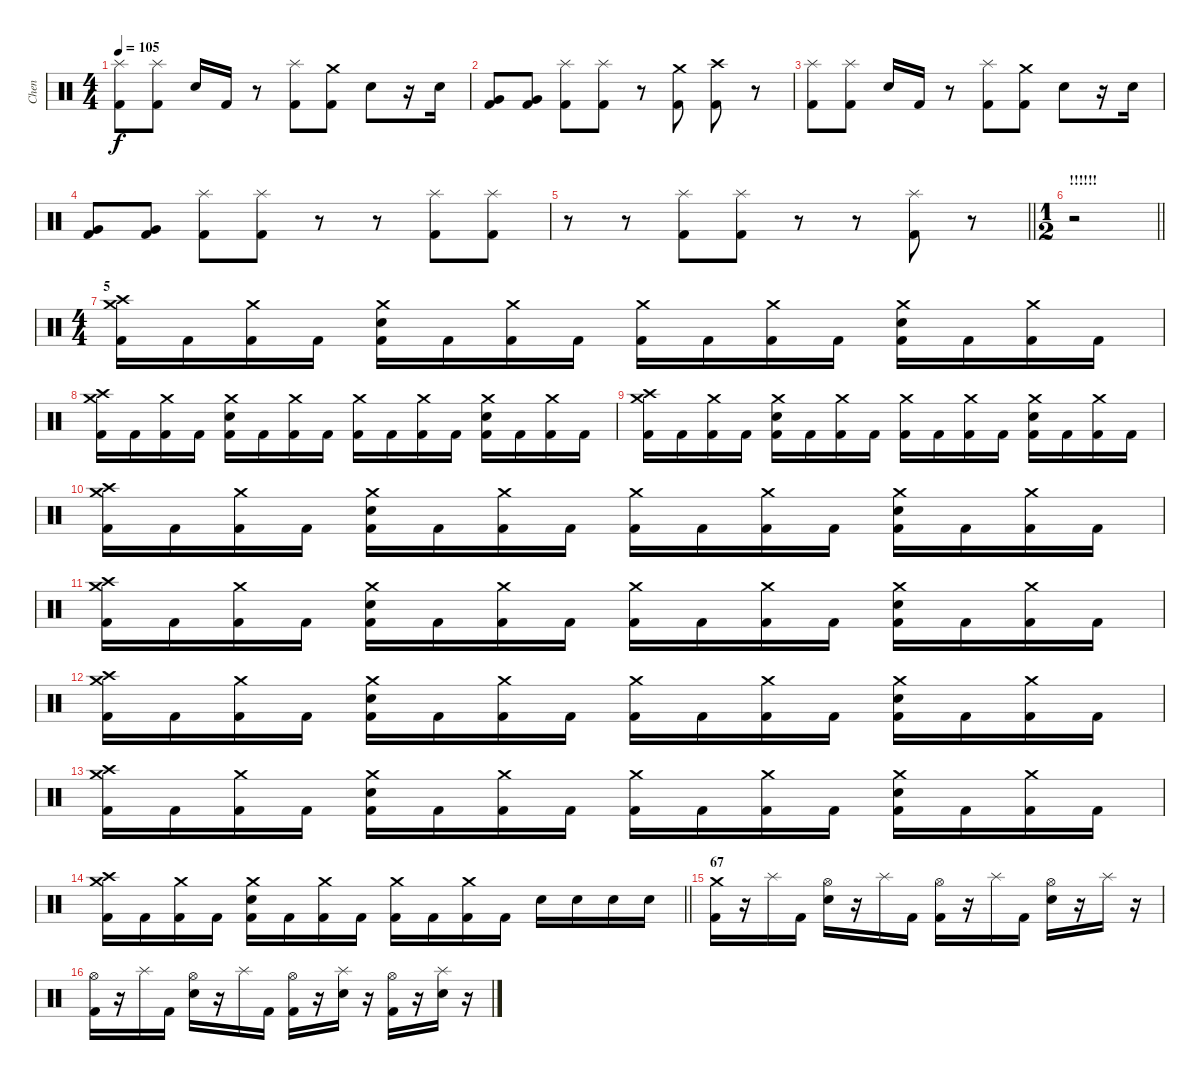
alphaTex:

\track ("Chen" "Chen") {instrument percussion}
\staff {score}
\articulation defaults
\ts (4 4)
\tempo 105
\clef neutral
\ks c
("Splash (hit)" "Kick (hit) 2").8{dy f} ("Splash (hit)" "Kick (hit) 2").8 "Electric Snare (hit)".16 "Kick (hit) 2".16 r.8 ("Splash (hit)" "Kick (hit) 2").8 ("Crash medium (hit)" "Kick (hit) 2").8 "Electric Snare (hit)".8 r.16 "Electric Snare (hit)".16 |
("Very Low Tom (hit)" "Kick (hit) 2").8 ("Very Low Tom (hit)" "Kick (hit) 2").8 ("Splash (hit)" "Kick (hit) 2").8 ("Splash (hit)" "Kick (hit) 2").8 r.8 ("Crash medium (hit)" "Kick (hit) 2").8 ("Crash high (hit)" "Kick (hit) 2").8 r.8 |
("Splash (hit)" "Kick (hit) 2").8 ("Splash (hit)" "Kick (hit) 2").8 "Electric Snare (hit)".16 "Kick (hit) 2".16 r.8 ("Splash (hit)" "Kick (hit) 2").8 ("Crash medium (hit)" "Kick (hit) 2").8 "Electric Snare (hit)".8 r.16 "Electric Snare (hit)".16 |
("Very Low Tom (hit)" "Kick (hit) 2").8 ("Very Low Tom (hit)" "Kick (hit) 2").8 ("Splash (hit)" "Kick (hit) 2").8 ("Splash (hit)" "Kick (hit) 2").8 r.8 r.8 ("Splash (hit)" "Kick (hit) 2").8 ("Splash (hit)" "Kick (hit) 2").8 |
\barLineRight lightlight
r.8 r.8 ("Splash (hit)" "Kick (hit) 2").8 ("Splash (hit)" "Kick (hit) 2").8 r.8 r.8 ("Splash (hit)" "Kick (hit) 2").8 r.8 |
\ts (1 2)
\section ("" "!!!!!!")
\barLineRight lightlight
r.2 |
\ts (4 4)
\section ("" "5")
("Crash medium (hit)" "Crash high (hit)" "Kick (hit) 2").16 "Kick (hit) 2".16 ("Crash medium (hit)" "Kick (hit) 2").16 "Kick (hit) 2".16 ("Crash medium (hit)" "Electric Snare (hit)" "Kick (hit) 2").16 "Kick (hit) 2".16 ("Crash medium (hit)" "Kick (hit) 2").16 "Kick (hit) 2".16 ("Crash medium (hit)" "Kick (hit) 2").16 "Kick (hit) 2".16 ("Crash medium (hit)" "Kick (hit) 2").16 "Kick (hit) 2".16 ("Crash medium (hit)" "Electric Snare (hit)" "Kick (hit) 2").16 "Kick (hit) 2".16 ("Crash medium (hit)" "Kick (hit) 2").16 "Kick (hit) 2".16 |
("Crash medium (hit)" "Crash high (hit)" "Kick (hit) 2").16 "Kick (hit) 2".16 ("Crash medium (hit)" "Kick (hit) 2").16 "Kick (hit) 2".16 ("Crash medium (hit)" "Electric Snare (hit)" "Kick (hit) 2").16 "Kick (hit) 2".16 ("Crash medium (hit)" "Kick (hit) 2").16 "Kick (hit) 2".16 ("Crash medium (hit)" "Kick (hit) 2").16 "Kick (hit) 2".16 ("Crash medium (hit)" "Kick (hit) 2").16 "Kick (hit) 2".16 ("Crash medium (hit)" "Electric Snare (hit)" "Kick (hit) 2").16 "Kick (hit) 2".16 ("Crash medium (hit)" "Kick (hit) 2").16 "Kick (hit) 2".16 |
("Crash medium (hit)" "Crash high (hit)" "Kick (hit) 2").16 "Kick (hit) 2".16 ("Crash medium (hit)" "Kick (hit) 2").16 "Kick (hit) 2".16 ("Crash medium (hit)" "Electric Snare (hit)" "Kick (hit) 2").16 "Kick (hit) 2".16 ("Crash medium (hit)" "Kick (hit) 2").16 "Kick (hit) 2".16 ("Crash medium (hit)" "Kick (hit) 2").16 "Kick (hit) 2".16 ("Crash medium (hit)" "Kick (hit) 2").16 "Kick (hit) 2".16 ("Crash medium (hit)" "Electric Snare (hit)" "Kick (hit) 2").16 "Kick (hit) 2".16 ("Crash medium (hit)" "Kick (hit) 2").16 "Kick (hit) 2".16 |
("Crash medium (hit)" "Crash high (hit)" "Kick (hit) 2").16 "Kick (hit) 2".16 ("Crash medium (hit)" "Kick (hit) 2").16 "Kick (hit) 2".16 ("Crash medium (hit)" "Electric Snare (hit)" "Kick (hit) 2").16 "Kick (hit) 2".16 ("Crash medium (hit)" "Kick (hit) 2").16 "Kick (hit) 2".16 ("Crash medium (hit)" "Kick (hit) 2").16 "Kick (hit) 2".16 ("Crash medium (hit)" "Kick (hit) 2").16 "Kick (hit) 2".16 ("Crash medium (hit)" "Electric Snare (hit)" "Kick (hit) 2").16 "Kick (hit) 2".16 ("Crash medium (hit)" "Kick (hit) 2").16 "Kick (hit) 2".16 |
("Crash medium (hit)" "Crash high (hit)" "Kick (hit) 2").16 "Kick (hit) 2".16 ("Crash medium (hit)" "Kick (hit) 2").16 "Kick (hit) 2".16 ("Crash medium (hit)" "Electric Snare (hit)" "Kick (hit) 2").16 "Kick (hit) 2".16 ("Crash medium (hit)" "Kick (hit) 2").16 "Kick (hit) 2".16 ("Crash medium (hit)" "Kick (hit) 2").16 "Kick (hit) 2".16 ("Crash medium (hit)" "Kick (hit) 2").16 "Kick (hit) 2".16 ("Crash medium (hit)" "Electric Snare (hit)" "Kick (hit) 2").16 "Kick (hit) 2".16 ("Crash medium (hit)" "Kick (hit) 2").16 "Kick (hit) 2".16 |
("Crash medium (hit)" "Crash high (hit)" "Kick (hit) 2").16 "Kick (hit) 2".16 ("Crash medium (hit)" "Kick (hit) 2").16 "Kick (hit) 2".16 ("Crash medium (hit)" "Electric Snare (hit)" "Kick (hit) 2").16 "Kick (hit) 2".16 ("Crash medium (hit)" "Kick (hit) 2").16 "Kick (hit) 2".16 ("Crash medium (hit)" "Kick (hit) 2").16 "Kick (hit) 2".16 ("Crash medium (hit)" "Kick (hit) 2").16 "Kick (hit) 2".16 ("Crash medium (hit)" "Electric Snare (hit)" "Kick (hit) 2").16 "Kick (hit) 2".16 ("Crash medium (hit)" "Kick (hit) 2").16 "Kick (hit) 2".16 |
("Crash medium (hit)" "Crash high (hit)" "Kick (hit) 2").16 "Kick (hit) 2".16 ("Crash medium (hit)" "Kick (hit) 2").16 "Kick (hit) 2".16 ("Crash medium (hit)" "Electric Snare (hit)" "Kick (hit) 2").16 "Kick (hit) 2".16 ("Crash medium (hit)" "Kick (hit) 2").16 "Kick (hit) 2".16 ("Crash medium (hit)" "Kick (hit) 2").16 "Kick (hit) 2".16 ("Crash medium (hit)" "Kick (hit) 2").16 "Kick (hit) 2".16 ("Crash medium (hit)" "Electric Snare (hit)" "Kick (hit) 2").16 "Kick (hit) 2".16 ("Crash medium (hit)" "Kick (hit) 2").16 "Kick (hit) 2".16 |
\barLineRight lightlight
("Crash medium (hit)" "Crash high (hit)" "Kick (hit) 2").16 "Kick (hit) 2".16 ("Crash medium (hit)" "Kick (hit) 2").16 "Kick (hit) 2".16 ("Crash medium (hit)" "Electric Snare (hit)" "Kick (hit) 2").16 "Kick (hit) 2".16 ("Crash medium (hit)" "Kick (hit) 2").16 "Kick (hit) 2".16 ("Crash medium (hit)" "Kick (hit) 2").16 "Kick (hit) 2".16 ("Crash medium (hit)" "Kick (hit) 2").16 "Kick (hit) 2".16 "Electric Snare (hit)".16 "Electric Snare (hit)".16 "Electric Snare (hit)".16 "Electric Snare (hit)".16 |
\section ("" "67")
("Crash medium (hit)" "Kick (hit) 2").16 r.16 "Splash (hit)".16 "Kick (hit) 2".16 ("Hi-Hat (open)" "Electric Snare (hit)").16 r.16 "Splash (hit)".16 "Kick (hit) 2".16 ("Hi-Hat (open)" "Kick (hit) 2").16 r.16 "Splash (hit)".16 "Kick (hit) 2".16 ("Hi-Hat (open)" "Electric Snare (hit)").16 r.16 "Splash (hit)".16 r.16 |
("Hi-Hat (open)" "Kick (hit) 2").16 r.16 "Splash (hit)".16 "Kick (hit) 2".16 ("Hi-Hat (open)" "Electric Snare (hit)").16 r.16 "Splash (hit)".16 "Kick (hit) 2".16 ("Hi-Hat (open)" "Kick (hit) 2").16 r.16 ("Splash (hit)" "Electric Snare (hit)").16 r.16 ("Hi-Hat (open)" "Kick (hit) 2").16 r.16 ("Splash (hit)" "Electric Snare (hit)").16 r.16
